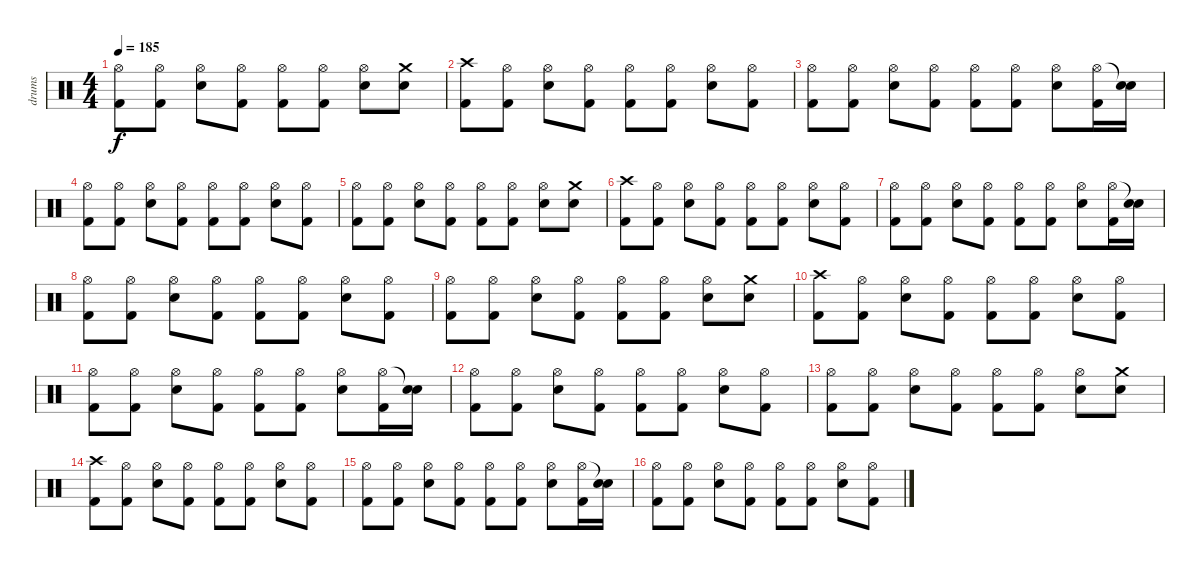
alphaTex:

\track ("drums" "drums") {instrument percussion}
\staff {score}
\articulation defaults
\ts (4 4)
\tempo 185
\clef neutral
\ks c
("Hi-Hat (open)" "Kick (hit) 2").8{dy f} ("Hi-Hat (open)" "Kick (hit) 2").8 ("Hi-Hat (open)" "Electric Snare (hit)").8 ("Hi-Hat (open)" "Kick (hit) 2").8 ("Hi-Hat (open)" "Kick (hit) 2").8 ("Hi-Hat (open)" "Kick (hit) 2").8 ("Hi-Hat (open)" "Electric Snare (hit)").8 ("Crash medium (hit)" "Electric Snare (hit)").8 |
("Crash high (hit)" "Kick (hit) 2").8 ("Hi-Hat (open)" "Kick (hit) 2").8 ("Hi-Hat (open)" "Electric Snare (hit)").8 ("Hi-Hat (open)" "Kick (hit) 2").8 ("Hi-Hat (open)" "Kick (hit) 2").8 ("Hi-Hat (open)" "Kick (hit) 2").8 ("Hi-Hat (open)" "Electric Snare (hit)").8 ("Hi-Hat (open)" "Kick (hit) 2").8 |
("Hi-Hat (open)" "Kick (hit) 2").8 ("Hi-Hat (open)" "Kick (hit) 2").8 ("Hi-Hat (open)" "Electric Snare (hit)").8 ("Hi-Hat (open)" "Kick (hit) 2").8 ("Hi-Hat (open)" "Kick (hit) 2").8 ("Hi-Hat (open)" "Kick (hit) 2").8 ("Hi-Hat (open)" "Electric Snare (hit)").8 ("Hi-Hat (open)" "Kick (hit) 2").16 ("Snare (hit)"{t} "Electric Snare (hit)").16 |
("Hi-Hat (open)" "Kick (hit) 2").8 ("Hi-Hat (open)" "Kick (hit) 2").8 ("Hi-Hat (open)" "Electric Snare (hit)").8 ("Hi-Hat (open)" "Kick (hit) 2").8 ("Hi-Hat (open)" "Kick (hit) 2").8 ("Hi-Hat (open)" "Kick (hit) 2").8 ("Hi-Hat (open)" "Electric Snare (hit)").8 ("Hi-Hat (open)" "Kick (hit) 2").8 |
("Hi-Hat (open)" "Kick (hit) 2").8 ("Hi-Hat (open)" "Kick (hit) 2").8 ("Hi-Hat (open)" "Electric Snare (hit)").8 ("Hi-Hat (open)" "Kick (hit) 2").8 ("Hi-Hat (open)" "Kick (hit) 2").8 ("Hi-Hat (open)" "Kick (hit) 2").8 ("Hi-Hat (open)" "Electric Snare (hit)").8 ("Crash medium (hit)" "Electric Snare (hit)").8 |
("Crash high (hit)" "Kick (hit) 2").8 ("Hi-Hat (open)" "Kick (hit) 2").8 ("Hi-Hat (open)" "Electric Snare (hit)").8 ("Hi-Hat (open)" "Kick (hit) 2").8 ("Hi-Hat (open)" "Kick (hit) 2").8 ("Hi-Hat (open)" "Kick (hit) 2").8 ("Hi-Hat (open)" "Electric Snare (hit)").8 ("Hi-Hat (open)" "Kick (hit) 2").8 |
("Hi-Hat (open)" "Kick (hit) 2").8 ("Hi-Hat (open)" "Kick (hit) 2").8 ("Hi-Hat (open)" "Electric Snare (hit)").8 ("Hi-Hat (open)" "Kick (hit) 2").8 ("Hi-Hat (open)" "Kick (hit) 2").8 ("Hi-Hat (open)" "Kick (hit) 2").8 ("Hi-Hat (open)" "Electric Snare (hit)").8 ("Hi-Hat (open)" "Kick (hit) 2").16 ("Snare (hit)"{t} "Electric Snare (hit)").16 |
("Hi-Hat (open)" "Kick (hit) 2").8 ("Hi-Hat (open)" "Kick (hit) 2").8 ("Hi-Hat (open)" "Electric Snare (hit)").8 ("Hi-Hat (open)" "Kick (hit) 2").8 ("Hi-Hat (open)" "Kick (hit) 2").8 ("Hi-Hat (open)" "Kick (hit) 2").8 ("Hi-Hat (open)" "Electric Snare (hit)").8 ("Hi-Hat (open)" "Kick (hit) 2").8 |
("Hi-Hat (open)" "Kick (hit) 2").8 ("Hi-Hat (open)" "Kick (hit) 2").8 ("Hi-Hat (open)" "Electric Snare (hit)").8 ("Hi-Hat (open)" "Kick (hit) 2").8 ("Hi-Hat (open)" "Kick (hit) 2").8 ("Hi-Hat (open)" "Kick (hit) 2").8 ("Hi-Hat (open)" "Electric Snare (hit)").8 ("Crash medium (hit)" "Electric Snare (hit)").8 |
("Crash high (hit)" "Kick (hit) 2").8 ("Hi-Hat (open)" "Kick (hit) 2").8 ("Hi-Hat (open)" "Electric Snare (hit)").8 ("Hi-Hat (open)" "Kick (hit) 2").8 ("Hi-Hat (open)" "Kick (hit) 2").8 ("Hi-Hat (open)" "Kick (hit) 2").8 ("Hi-Hat (open)" "Electric Snare (hit)").8 ("Hi-Hat (open)" "Kick (hit) 2").8 |
("Hi-Hat (open)" "Kick (hit) 2").8 ("Hi-Hat (open)" "Kick (hit) 2").8 ("Hi-Hat (open)" "Electric Snare (hit)").8 ("Hi-Hat (open)" "Kick (hit) 2").8 ("Hi-Hat (open)" "Kick (hit) 2").8 ("Hi-Hat (open)" "Kick (hit) 2").8 ("Hi-Hat (open)" "Electric Snare (hit)").8 ("Hi-Hat (open)" "Kick (hit) 2").16 ("Snare (hit)"{t} "Electric Snare (hit)").16 |
("Hi-Hat (open)" "Kick (hit) 2").8 ("Hi-Hat (open)" "Kick (hit) 2").8 ("Hi-Hat (open)" "Electric Snare (hit)").8 ("Hi-Hat (open)" "Kick (hit) 2").8 ("Hi-Hat (open)" "Kick (hit) 2").8 ("Hi-Hat (open)" "Kick (hit) 2").8 ("Hi-Hat (open)" "Electric Snare (hit)").8 ("Hi-Hat (open)" "Kick (hit) 2").8 |
("Hi-Hat (open)" "Kick (hit) 2").8 ("Hi-Hat (open)" "Kick (hit) 2").8 ("Hi-Hat (open)" "Electric Snare (hit)").8 ("Hi-Hat (open)" "Kick (hit) 2").8 ("Hi-Hat (open)" "Kick (hit) 2").8 ("Hi-Hat (open)" "Kick (hit) 2").8 ("Hi-Hat (open)" "Electric Snare (hit)").8 ("Crash medium (hit)" "Electric Snare (hit)").8 |
("Crash high (hit)" "Kick (hit) 2").8 ("Hi-Hat (open)" "Kick (hit) 2").8 ("Hi-Hat (open)" "Electric Snare (hit)").8 ("Hi-Hat (open)" "Kick (hit) 2").8 ("Hi-Hat (open)" "Kick (hit) 2").8 ("Hi-Hat (open)" "Kick (hit) 2").8 ("Hi-Hat (open)" "Electric Snare (hit)").8 ("Hi-Hat (open)" "Kick (hit) 2").8 |
("Hi-Hat (open)" "Kick (hit) 2").8 ("Hi-Hat (open)" "Kick (hit) 2").8 ("Hi-Hat (open)" "Electric Snare (hit)").8 ("Hi-Hat (open)" "Kick (hit) 2").8 ("Hi-Hat (open)" "Kick (hit) 2").8 ("Hi-Hat (open)" "Kick (hit) 2").8 ("Hi-Hat (open)" "Electric Snare (hit)").8 ("Hi-Hat (open)" "Kick (hit) 2").16 ("Snare (hit)"{t} "Electric Snare (hit)").16 |
("Hi-Hat (open)" "Kick (hit) 2").8 ("Hi-Hat (open)" "Kick (hit) 2").8 ("Hi-Hat (open)" "Electric Snare (hit)").8 ("Hi-Hat (open)" "Kick (hit) 2").8 ("Hi-Hat (open)" "Kick (hit) 2").8 ("Hi-Hat (open)" "Kick (hit) 2").8 ("Hi-Hat (open)" "Electric Snare (hit)").8 ("Hi-Hat (open)" "Kick (hit) 2").8
